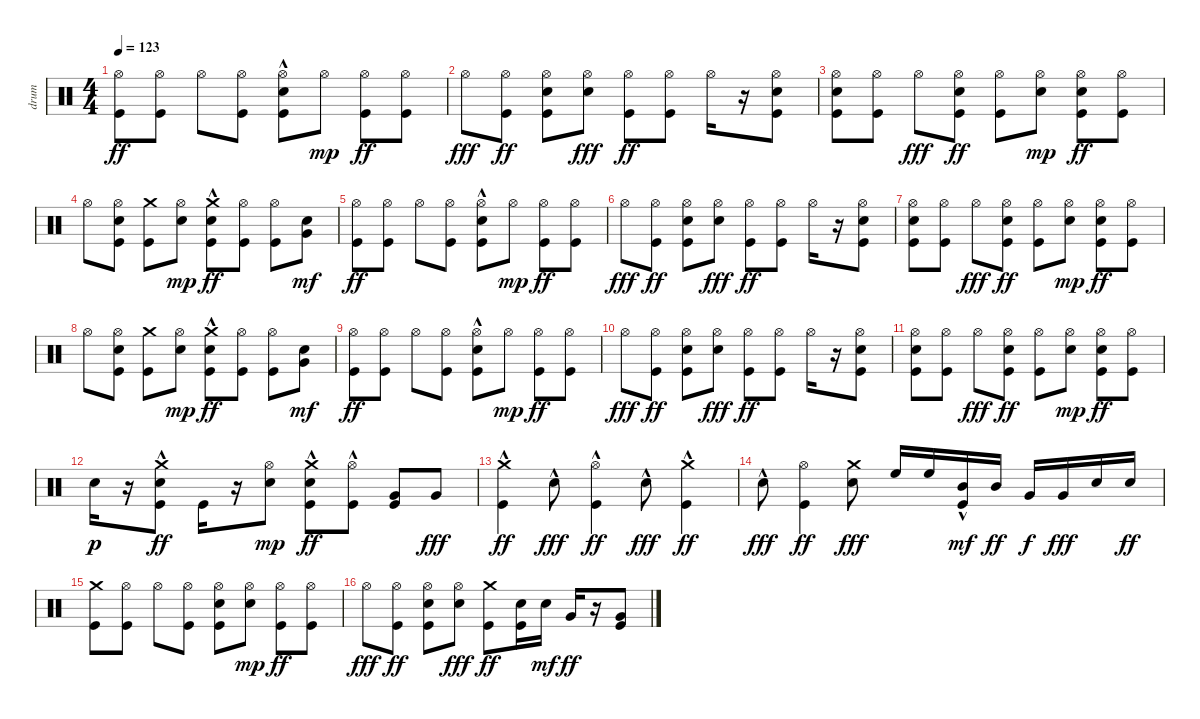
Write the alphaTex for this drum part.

\track ("drum" "drum") {instrument percussion}
\staff {score}
\articulation defaults
\ts (4 4)
\tempo 123
\clef neutral
\ks c
("Hi-Hat (open)" "Kick (hit)").8{dy ff} ("Hi-Hat (open)" "Kick (hit)").8 "Hi-Hat (open)".8 ("Hi-Hat (open)" "Kick (hit)").8 ("Hi-Hat (open)" "Electric Snare (hit)"{hac} "Kick (hit)").8 "Hi-Hat (open)".8{dy mp} ("Hi-Hat (open)" "Kick (hit)").8{dy ff} ("Hi-Hat (open)" "Kick (hit)").8 |
"Hi-Hat (open)".8{dy fff} ("Hi-Hat (open)" "Kick (hit)").8{dy ff} ("Electric Snare (hit)" "Hi-Hat (open)" "Kick (hit)").8 ("Hi-Hat (open)" "Electric Snare (hit)").8{dy fff} ("Hi-Hat (open)" "Kick (hit)").8{dy ff} ("Hi-Hat (open)" "Kick (hit)").8 "Hi-Hat (open)".16 r.16 ("Hi-Hat (open)" "Electric Snare (hit)" "Kick (hit)").8 |
("Hi-Hat (open)" "Electric Snare (hit)" "Kick (hit)").8 ("Hi-Hat (open)" "Kick (hit)").8 "Hi-Hat (open)".8{dy fff} ("Electric Snare (hit)" "Hi-Hat (open)" "Kick (hit)").8{dy ff} ("Hi-Hat (open)" "Kick (hit)").8 ("Hi-Hat (open)" "Electric Snare (hit)").8{dy mp} ("Hi-Hat (open)" "Electric Snare (hit)" "Kick (hit)").8{dy ff} ("Hi-Hat (open)" "Kick (hit)").8 |
"Hi-Hat (open)".8 ("Electric Snare (hit)" "Hi-Hat (open)" "Kick (hit)").8 ("Crash medium (hit)" "Kick (hit)").8 ("Hi-Hat (open)" "Electric Snare (hit)").8{dy mp} ("Crash medium (hit)" "Electric Snare (hit)"{hac} "Kick (hit)").8{dy ff} ("Hi-Hat (open)" "Kick (hit)").8 ("Hi-Hat (open)" "Kick (hit)").8 ("Very Low Tom (hit)" "Electric Snare (hit)").8{dy mf} |
("Hi-Hat (open)" "Kick (hit)").8{dy ff} ("Hi-Hat (open)" "Kick (hit)").8 "Hi-Hat (open)".8 ("Hi-Hat (open)" "Kick (hit)").8 ("Hi-Hat (open)" "Electric Snare (hit)"{hac} "Kick (hit)").8 "Hi-Hat (open)".8{dy mp} ("Hi-Hat (open)" "Kick (hit)").8{dy ff} ("Hi-Hat (open)" "Kick (hit)").8 |
"Hi-Hat (open)".8{dy fff} ("Hi-Hat (open)" "Kick (hit)").8{dy ff} ("Electric Snare (hit)" "Hi-Hat (open)" "Kick (hit)").8 ("Hi-Hat (open)" "Electric Snare (hit)").8{dy fff} ("Hi-Hat (open)" "Kick (hit)").8{dy ff} ("Hi-Hat (open)" "Kick (hit)").8 "Hi-Hat (open)".16 r.16 ("Hi-Hat (open)" "Electric Snare (hit)" "Kick (hit)").8 |
("Hi-Hat (open)" "Electric Snare (hit)" "Kick (hit)").8 ("Hi-Hat (open)" "Kick (hit)").8 "Hi-Hat (open)".8{dy fff} ("Electric Snare (hit)" "Hi-Hat (open)" "Kick (hit)").8{dy ff} ("Hi-Hat (open)" "Kick (hit)").8 ("Hi-Hat (open)" "Electric Snare (hit)").8{dy mp} ("Hi-Hat (open)" "Electric Snare (hit)" "Kick (hit)").8{dy ff} ("Hi-Hat (open)" "Kick (hit)").8 |
"Hi-Hat (open)".8 ("Electric Snare (hit)" "Hi-Hat (open)" "Kick (hit)").8 ("Crash medium (hit)" "Kick (hit)").8 ("Hi-Hat (open)" "Electric Snare (hit)").8{dy mp} ("Crash medium (hit)" "Electric Snare (hit)"{hac} "Kick (hit)").8{dy ff} ("Hi-Hat (open)" "Kick (hit)").8 ("Hi-Hat (open)" "Kick (hit)").8 ("Very Low Tom (hit)" "Electric Snare (hit)").8{dy mf} |
("Hi-Hat (open)" "Kick (hit)").8{dy ff} ("Hi-Hat (open)" "Kick (hit)").8 "Hi-Hat (open)".8 ("Hi-Hat (open)" "Kick (hit)").8 ("Hi-Hat (open)" "Electric Snare (hit)"{hac} "Kick (hit)").8 "Hi-Hat (open)".8{dy mp} ("Hi-Hat (open)" "Kick (hit)").8{dy ff} ("Hi-Hat (open)" "Kick (hit)").8 |
"Hi-Hat (open)".8{dy fff} ("Hi-Hat (open)" "Kick (hit)").8{dy ff} ("Electric Snare (hit)" "Hi-Hat (open)" "Kick (hit)").8 ("Hi-Hat (open)" "Electric Snare (hit)").8{dy fff} ("Hi-Hat (open)" "Kick (hit)").8{dy ff} ("Hi-Hat (open)" "Kick (hit)").8 "Hi-Hat (open)".16 r.16 ("Hi-Hat (open)" "Electric Snare (hit)" "Kick (hit)").8 |
("Hi-Hat (open)" "Electric Snare (hit)" "Kick (hit)").8 ("Hi-Hat (open)" "Kick (hit)").8 "Hi-Hat (open)".8{dy fff} ("Electric Snare (hit)" "Hi-Hat (open)" "Kick (hit)").8{dy ff} ("Hi-Hat (open)" "Kick (hit)").8 ("Hi-Hat (open)" "Electric Snare (hit)").8{dy mp} ("Hi-Hat (open)" "Electric Snare (hit)" "Kick (hit)").8{dy ff} ("Hi-Hat (open)" "Kick (hit)").8 |
"Electric Snare (hit)".16{dy p} r.16 ("Crash medium (hit)"{hac} "Electric Snare (hit)" "Kick (hit)").8{dy ff} "Kick (hit)".16 r.16 ("Hi-Hat (open)" "Electric Snare (hit)").8{dy mp} ("Crash medium (hit)" "Electric Snare (hit)"{hac} "Kick (hit)").8{dy ff} ("Hi-Hat (open)"{hac} "Kick (hit)").8 ("Very Low Tom (hit)" "Kick (hit)").8 "Very Low Tom (hit)".8{dy fff} |
("Crash medium (hit)"{hac} "Kick (hit)").4{dy ff} "Electric Snare (hit)"{hac}.8{dy fff} ("Hi-Hat (open)" "Kick (hit)"{hac}).4{dy ff} "Electric Snare (hit)"{hac}.8{dy fff} ("Crash medium (hit)" "Kick (hit)"{hac}).4{dy ff} |
"Electric Snare (hit)"{hac}.8{dy fff} ("Hi-Hat (open)" "Kick (hit)").4{dy ff} ("Crash medium (hit)" "Electric Snare (hit)").8{dy fff} "High Floor Tom (hit)".16 "High Floor Tom (hit)".16 ("Kick (hit)"{hac} "Mid Tom (hit)").16{dy mf} "Mid Tom (hit)".16{dy ff} "Very Low Tom (hit)".16{dy f} "Very Low Tom (hit)".16{dy fff} "Electric Snare (hit)".16 "Electric Snare (hit)".16{dy ff} |
("Crash medium (hit)" "Kick (hit)").8 ("Hi-Hat (open)" "Kick (hit)").8 "Hi-Hat (open)".8 ("Hi-Hat (open)" "Kick (hit)").8 ("Hi-Hat (open)" "Electric Snare (hit)" "Kick (hit)").8 ("Electric Snare (hit)" "Hi-Hat (open)").8{dy mp} ("Hi-Hat (open)" "Kick (hit)").8{dy ff} ("Hi-Hat (open)" "Kick (hit)").8 |
"Hi-Hat (open)".8{dy fff} ("Hi-Hat (open)" "Kick (hit)").8{dy ff} ("Electric Snare (hit)" "Hi-Hat (open)" "Kick (hit)").8 ("Hi-Hat (open)" "Electric Snare (hit)").8{dy fff} ("Crash medium (hit)" "Kick (hit)").8{dy ff} ("Electric Snare (hit)" "Kick (hit)").16 "Electric Snare (hit)".16{dy mf} "Very Low Tom (hit)".16{dy ff} r.16 ("Very Low Tom (hit)" "Kick (hit)").8
